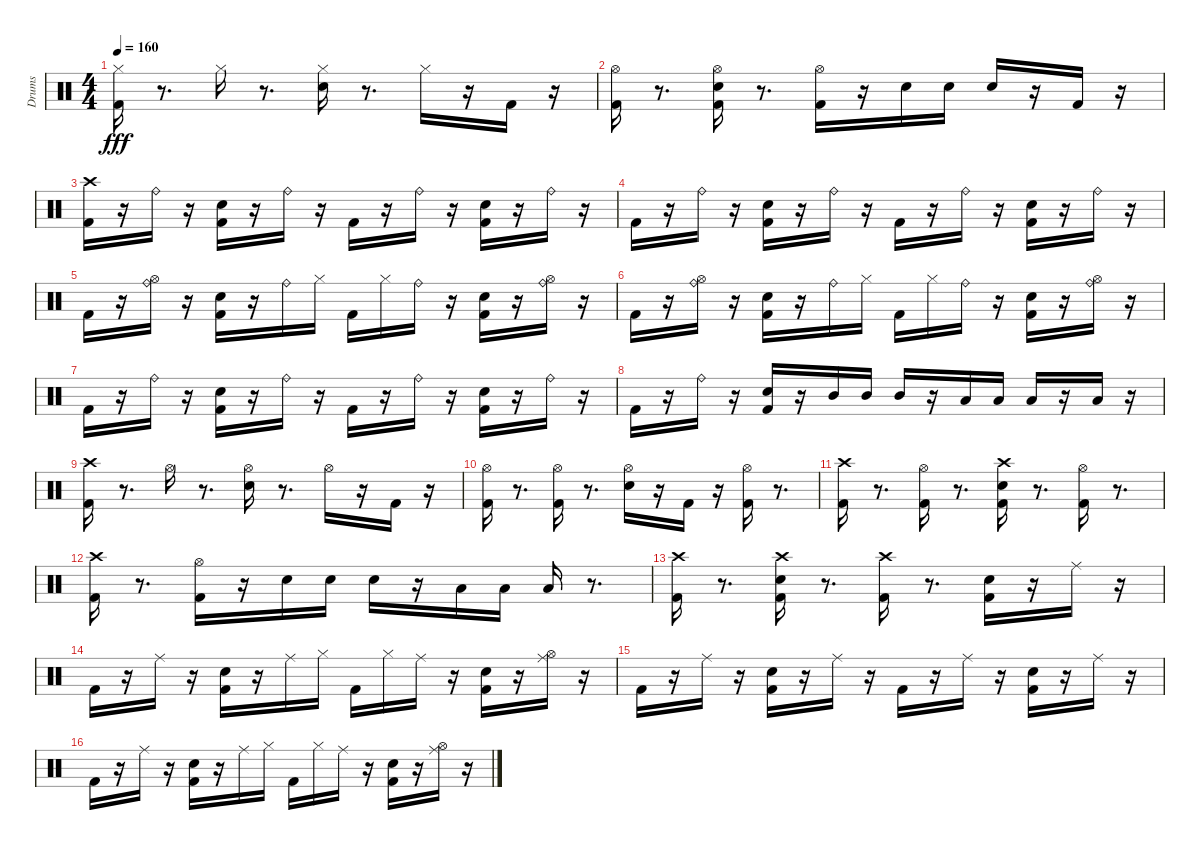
\track ("Drums" "Drums") {instrument percussion}
\staff {score}
\articulation defaults
\ts (4 4)
\tempo 160
\clef neutral
\ks c
("Hi-Hat (closed)" "Kick (hit) 2").16{dy fff} r.8{d} "Hi-Hat (closed)".16 r.8{d} ("Electric Snare (hit)" "Hi-Hat (closed)").16 r.8{d} "Hi-Hat (closed)".16 r.16 "Kick (hit) 2".16 r.16 |
("Kick (hit) 2" "Hi-Hat (open)").16 r.8{d} ("Kick (hit) 2" "Electric Snare (hit)" "Hi-Hat (open)").16 r.8{d} ("Hi-Hat (open)" "Kick (hit) 2").16 r.16 "Electric Snare (hit)".16 "Electric Snare (hit)".16 "Electric Snare (hit)".16 r.16 "Kick (hit) 2".16 r.16 |
("Crash high (hit)" "Kick (hit) 2").16 r.16 "Ride (bell)".16 r.16 ("Electric Snare (hit)" "Kick (hit) 2").16 r.16 "Ride (bell)".16 r.16 "Kick (hit) 2".16 r.16 "Ride (bell)".16 r.16 ("Kick (hit) 2" "Electric Snare (hit)").16 r.16 "Ride (bell)".16 r.16 |
"Kick (hit) 2".16 r.16 "Ride (bell)".16 r.16 ("Kick (hit) 2" "Electric Snare (hit)").16 r.16 "Ride (bell)".16 r.16 "Kick (hit) 2".16 r.16 "Ride (bell)".16 r.16 ("Kick (hit) 2" "Electric Snare (hit)").16 r.16 "Ride (bell)".16 r.16 |
"Kick (hit) 2".16 r.16 ("Ride (bell)" "Hi-Hat (open)").16 r.16 ("Kick (hit) 2" "Electric Snare (hit)").16 r.16 "Ride (bell)".16 "Hi-Hat (closed)".16 "Kick (hit) 2".16 "Hi-Hat (closed)".16 "Ride (bell)".16 r.16 ("Kick (hit) 2" "Electric Snare (hit)").16 r.16 ("Ride (bell)" "Hi-Hat (open)").16 r.16 |
"Kick (hit) 2".16 r.16 ("Hi-Hat (open)" "Ride (bell)").16 r.16 ("Kick (hit) 2" "Electric Snare (hit)").16 r.16 "Ride (bell)".16 "Hi-Hat (closed)".16 "Kick (hit) 2".16 "Hi-Hat (closed)".16 "Ride (bell)".16 r.16 ("Electric Snare (hit)" "Kick (hit) 2").16 r.16 ("Hi-Hat (open)" "Ride (bell)").16 r.16 |
"Kick (hit) 2".16 r.16 "Ride (bell)".16 r.16 ("Electric Snare (hit)" "Kick (hit) 2").16 r.16 "Ride (bell)".16 r.16 "Kick (hit) 2".16 r.16 "Ride (bell)".16 r.16 ("Electric Snare (hit)" "Kick (hit) 2").16 r.16 "Ride (bell)".16 r.16 |
"Kick (hit) 2".16 r.16 "Ride (bell)".16 r.16 ("Electric Snare (hit)" "Kick (hit) 2").16 r.16 "Mid Tom (hit)".16 "Mid Tom (hit)".16 "Mid Tom (hit)".16 r.16 "Low Tom (hit)".16 "Low Tom (hit)".16 "Low Tom (hit)".16 r.16 "Low Tom (hit)".16 r.16 |
("Crash high (hit)" "Kick (hit) 2").16 r.8{d} "Hi-Hat (open)".16 r.8{d} ("Hi-Hat (open)" "Electric Snare (hit)").16 r.8{d} "Hi-Hat (open)".16 r.16 "Kick (hit) 2".16 r.16 |
("Kick (hit) 2" "Hi-Hat (open)").16 r.8{d} ("Hi-Hat (open)" "Kick (hit) 2").16 r.8{d} ("Hi-Hat (open)" "Electric Snare (hit)").16 r.16 "Kick (hit) 2".16 r.16 ("Kick (hit) 2" "Hi-Hat (open)").16 r.8{d} |
("Kick (hit) 2" "Crash high (hit)").16 r.8{d} ("Kick (hit) 2" "Hi-Hat (open)").16 r.8{d} ("Electric Snare (hit)" "Kick (hit) 2" "Crash high (hit)").16 r.8{d} ("Kick (hit) 2" "Hi-Hat (open)").16 r.8{d} |
("Kick (hit) 2" "Crash high (hit)").16 r.8{d} ("Kick (hit) 2" "Hi-Hat (open)").16 r.16 "Electric Snare (hit)".16 "Electric Snare (hit)".16 "Electric Snare (hit)".16 r.16 "Low Tom (hit)".16 "Low Tom (hit)".16 "Low Tom (hit)".16 r.8{d} |
("Crash high (hit)" "Kick (hit) 2").16 r.8{d} ("Crash high (hit)" "Electric Snare (hit)" "Kick (hit) 2").16 r.8{d} ("Crash high (hit)" "Kick (hit) 2").16 r.8{d} ("Electric Snare (hit)" "Kick (hit) 2").16 r.16 "Ride (middle)".16 r.16 |
"Kick (hit) 2".16 r.16 "Ride (middle)".16 r.16 ("Electric Snare (hit)" "Kick (hit) 2").16 r.16 "Ride (middle)".16 "Hi-Hat (closed)".16 "Kick (hit) 2".16 "Hi-Hat (closed)".16 "Ride (middle)".16 r.16 ("Electric Snare (hit)" "Kick (hit) 2").16 r.16 ("Ride (middle)" "Hi-Hat (open)").16 r.16 |
"Kick (hit) 2".16 r.16 "Ride (middle)".16 r.16 ("Electric Snare (hit)" "Kick (hit) 2").16 r.16 "Ride (middle)".16 r.16 "Kick (hit) 2".16 r.16 "Ride (middle)".16 r.16 ("Electric Snare (hit)" "Kick (hit) 2").16 r.16 "Ride (middle)".16 r.16 |
"Kick (hit) 2".16 r.16 "Ride (middle)".16 r.16 ("Electric Snare (hit)" "Kick (hit) 2").16 r.16 "Ride (middle)".16 "Hi-Hat (closed)".16 "Kick (hit) 2".16 "Hi-Hat (closed)".16 "Ride (middle)".16 r.16 ("Electric Snare (hit)" "Kick (hit) 2").16 r.16 ("Hi-Hat (open)" "Ride (middle)").16 r.16
